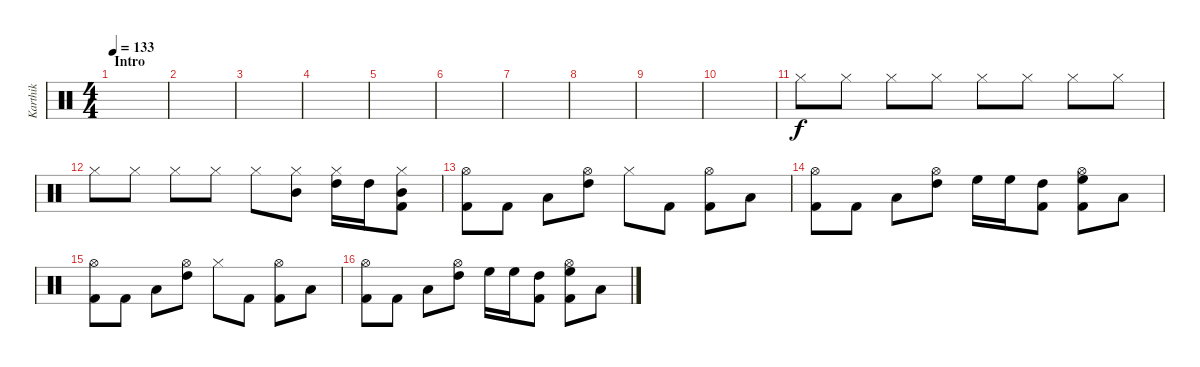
\track ("Karthik" "Karthik") {instrument percussion}
\staff {score}
\articulation defaults
\ts (4 4)
\section ("" "Intro")
\tempo 133
\clef neutral
\ks c
|
|
|
|
|
|
|
|
|
|
"Hi-Hat (closed)".8 "Hi-Hat (closed)".8 "Hi-Hat (closed)".8 "Hi-Hat (closed)".8 "Hi-Hat (closed)".8 "Hi-Hat (closed)".8 "Hi-Hat (closed)".8 "Hi-Hat (closed)".8 |
"Hi-Hat (closed)".8 "Hi-Hat (closed)".8 "Hi-Hat (closed)".8 "Hi-Hat (closed)".8 "Hi-Hat (closed)".8 ("Hi-Hat (closed)" "Mid Tom (hit)").8 ("Hi-Hat (closed)" "High Tom (hit)").16 "High Tom (hit)".16 ("Hi-Hat (closed)" "Mid Tom (hit)" "Kick (hit) 2").8 |
("Kick (hit) 2" "Hi-Hat (open)").8 "Kick (hit) 2".8 "Low Tom (hit)".8 ("High Tom (hit)" "Hi-Hat (open)").8 "Hi-Hat (closed)".8 "Kick (hit) 2".8 ("Kick (hit) 2" "Hi-Hat (open)").8 "Low Tom (hit)".8 |
("Kick (hit) 2" "Hi-Hat (open)").8 "Kick (hit) 2".8 "Low Tom (hit)".8 ("High Tom (hit)" "Hi-Hat (open)").8 "High Floor Tom (hit)".16 "High Floor Tom (hit)".16 ("Kick (hit) 2" "High Tom (hit)").8 ("Kick (hit) 2" "Hi-Hat (open)" "High Floor Tom (hit)").8 "Low Tom (hit)".8 |
("Kick (hit) 2" "Hi-Hat (open)").8 "Kick (hit) 2".8 "Low Tom (hit)".8 ("High Tom (hit)" "Hi-Hat (open)").8 "Hi-Hat (closed)".8 "Kick (hit) 2".8 ("Kick (hit) 2" "Hi-Hat (open)").8 "Low Tom (hit)".8 |
("Kick (hit) 2" "Hi-Hat (open)").8 "Kick (hit) 2".8 "Low Tom (hit)".8 ("High Tom (hit)" "Hi-Hat (open)").8 "High Floor Tom (hit)".16 "High Floor Tom (hit)".16 ("Kick (hit) 2" "High Tom (hit)").8 ("Kick (hit) 2" "Hi-Hat (open)" "High Floor Tom (hit)").8 "Low Tom (hit)".8
